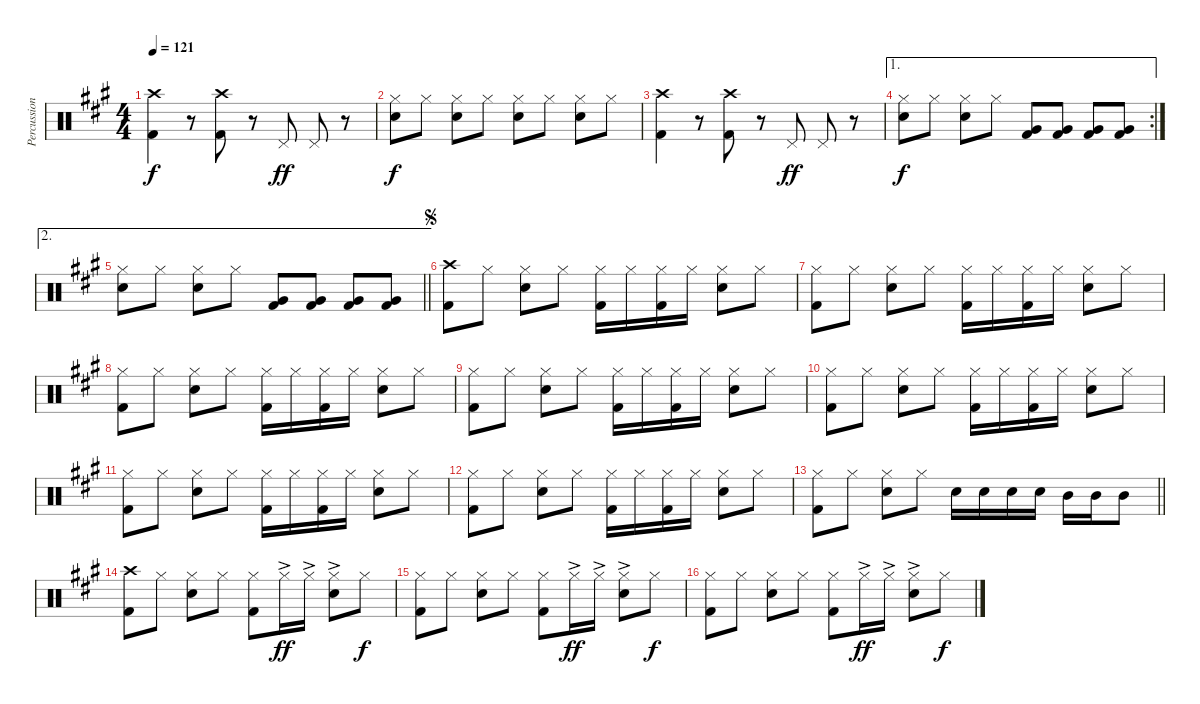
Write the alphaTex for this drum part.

\track ("Percussion" "Percussion") {instrument percussion}
\staff {score}
\articulation defaults
\ts (4 4)
\tempo 121
\clef neutral
\ks a
("Crash high (hit)" "Kick (hit) 2").4{dy f} r.8 ("Crash high (hit)" "Kick (hit) 2").8 r.8 "Pedal Hi-Hat (hit)".8{dy ff} "Pedal Hi-Hat (hit)".8 r.8 |
("Hi-Hat (closed)" "Snare (hit) 2").8{dy f} "Hi-Hat (closed)".8 ("Hi-Hat (closed)" "Snare (hit) 2").8 "Hi-Hat (closed)".8 ("Hi-Hat (closed)" "Snare (hit) 2").8 "Hi-Hat (closed)".8 ("Hi-Hat (closed)" "Snare (hit) 2").8 "Hi-Hat (closed)".8 |
("Crash high (hit)" "Kick (hit) 2").4 r.8 ("Crash high (hit)" "Kick (hit) 2").8 r.8 "Pedal Hi-Hat (hit)".8{dy ff} "Pedal Hi-Hat (hit)".8 r.8 |
\ae 1
\rc 2
("Hi-Hat (closed)" "Snare (hit) 2").8{dy f} "Hi-Hat (closed)".8 ("Hi-Hat (closed)" "Snare (hit) 2").8 "Hi-Hat (closed)".8 ("Very Low Tom (hit)" "Kick (hit) 2").8 ("Very Low Tom (hit)" "Kick (hit) 2").8 ("Very Low Tom (hit)" "Kick (hit) 2").8 ("Very Low Tom (hit)" "Kick (hit) 2").8 |
\ae 2
\barLineRight lightlight
("Hi-Hat (closed)" "Snare (hit) 2").8 "Hi-Hat (closed)".8 ("Hi-Hat (closed)" "Snare (hit) 2").8 "Hi-Hat (closed)".8 ("Very Low Tom (hit)" "Kick (hit) 2").8 ("Very Low Tom (hit)" "Kick (hit) 2").8 ("Very Low Tom (hit)" "Kick (hit) 2").8 ("Very Low Tom (hit)" "Kick (hit) 2").8 |
\jump segno
("Crash high (hit)" "Kick (hit) 2").8 "Hi-Hat (closed)".8 ("Hi-Hat (closed)" "Snare (hit) 2").8 "Hi-Hat (closed)".8 ("Hi-Hat (closed)" "Kick (hit) 2").16 "Hi-Hat (closed)".16 ("Hi-Hat (closed)" "Kick (hit) 2").16 "Hi-Hat (closed)".16 ("Hi-Hat (closed)" "Snare (hit) 2").8 "Hi-Hat (closed)".8 |
("Hi-Hat (closed)" "Kick (hit) 2").8 "Hi-Hat (closed)".8 ("Hi-Hat (closed)" "Snare (hit) 2").8 "Hi-Hat (closed)".8 ("Hi-Hat (closed)" "Kick (hit) 2").16 "Hi-Hat (closed)".16 ("Hi-Hat (closed)" "Kick (hit) 2").16 "Hi-Hat (closed)".16 ("Hi-Hat (closed)" "Snare (hit) 2").8 "Hi-Hat (closed)".8 |
("Hi-Hat (closed)" "Kick (hit) 2").8 "Hi-Hat (closed)".8 ("Hi-Hat (closed)" "Snare (hit) 2").8 "Hi-Hat (closed)".8 ("Hi-Hat (closed)" "Kick (hit) 2").16 "Hi-Hat (closed)".16 ("Hi-Hat (closed)" "Kick (hit) 2").16 "Hi-Hat (closed)".16 ("Hi-Hat (closed)" "Snare (hit) 2").8 "Hi-Hat (closed)".8 |
("Hi-Hat (closed)" "Kick (hit) 2").8 "Hi-Hat (closed)".8 ("Hi-Hat (closed)" "Snare (hit) 2").8 "Hi-Hat (closed)".8 ("Hi-Hat (closed)" "Kick (hit) 2").16 "Hi-Hat (closed)".16 ("Hi-Hat (closed)" "Kick (hit) 2").16 "Hi-Hat (closed)".16 ("Hi-Hat (closed)" "Snare (hit) 2").8 "Hi-Hat (closed)".8 |
("Hi-Hat (closed)" "Kick (hit) 2").8 "Hi-Hat (closed)".8 ("Hi-Hat (closed)" "Snare (hit) 2").8 "Hi-Hat (closed)".8 ("Hi-Hat (closed)" "Kick (hit) 2").16 "Hi-Hat (closed)".16 ("Hi-Hat (closed)" "Kick (hit) 2").16 "Hi-Hat (closed)".16 ("Hi-Hat (closed)" "Snare (hit) 2").8 "Hi-Hat (closed)".8 |
("Hi-Hat (closed)" "Kick (hit) 2").8 "Hi-Hat (closed)".8 ("Hi-Hat (closed)" "Snare (hit) 2").8 "Hi-Hat (closed)".8 ("Hi-Hat (closed)" "Kick (hit) 2").16 "Hi-Hat (closed)".16 ("Hi-Hat (closed)" "Kick (hit) 2").16 "Hi-Hat (closed)".16 ("Hi-Hat (closed)" "Snare (hit) 2").8 "Hi-Hat (closed)".8 |
("Hi-Hat (closed)" "Kick (hit) 2").8 "Hi-Hat (closed)".8 ("Hi-Hat (closed)" "Snare (hit) 2").8 "Hi-Hat (closed)".8 ("Hi-Hat (closed)" "Kick (hit) 2").16 "Hi-Hat (closed)".16 ("Hi-Hat (closed)" "Kick (hit) 2").16 "Hi-Hat (closed)".16 ("Hi-Hat (closed)" "Snare (hit) 2").8 "Hi-Hat (closed)".8 |
\barLineRight lightlight
("Hi-Hat (closed)" "Kick (hit) 2").8 "Hi-Hat (closed)".8 ("Hi-Hat (closed)" "Snare (hit) 2").8 "Hi-Hat (closed)".8 "Snare (hit) 2".16 "Snare (hit) 2".16 "Snare (hit) 2".16 "Snare (hit) 2".16 "Mid Tom (hit)".16 "Mid Tom (hit)".16 "Mid Tom (hit)".8 |
("Crash high (hit)" "Kick (hit) 2").8 "Hi-Hat (closed)".8 ("Hi-Hat (closed)" "Snare (hit) 2").8 "Hi-Hat (closed)".8 ("Hi-Hat (closed)" "Kick (hit) 2").8 "Hi-Hat (closed)"{ac}.16{dy ff} "Hi-Hat (closed)"{ac}.16 ("Hi-Hat (closed)"{ac} "Snare (hit) 2").8 "Hi-Hat (closed)".8{dy f} |
("Hi-Hat (closed)" "Kick (hit) 2").8 "Hi-Hat (closed)".8 ("Hi-Hat (closed)" "Snare (hit) 2").8 "Hi-Hat (closed)".8 ("Hi-Hat (closed)" "Kick (hit) 2").8 "Hi-Hat (closed)"{ac}.16{dy ff} "Hi-Hat (closed)"{ac}.16 ("Hi-Hat (closed)"{ac} "Snare (hit) 2").8 "Hi-Hat (closed)".8{dy f} |
("Hi-Hat (closed)" "Kick (hit) 2").8 "Hi-Hat (closed)".8 ("Hi-Hat (closed)" "Snare (hit) 2").8 "Hi-Hat (closed)".8 ("Hi-Hat (closed)" "Kick (hit) 2").8 "Hi-Hat (closed)"{ac}.16{dy ff} "Hi-Hat (closed)"{ac}.16 ("Hi-Hat (closed)"{ac} "Snare (hit) 2").8 "Hi-Hat (closed)".8{dy f}
